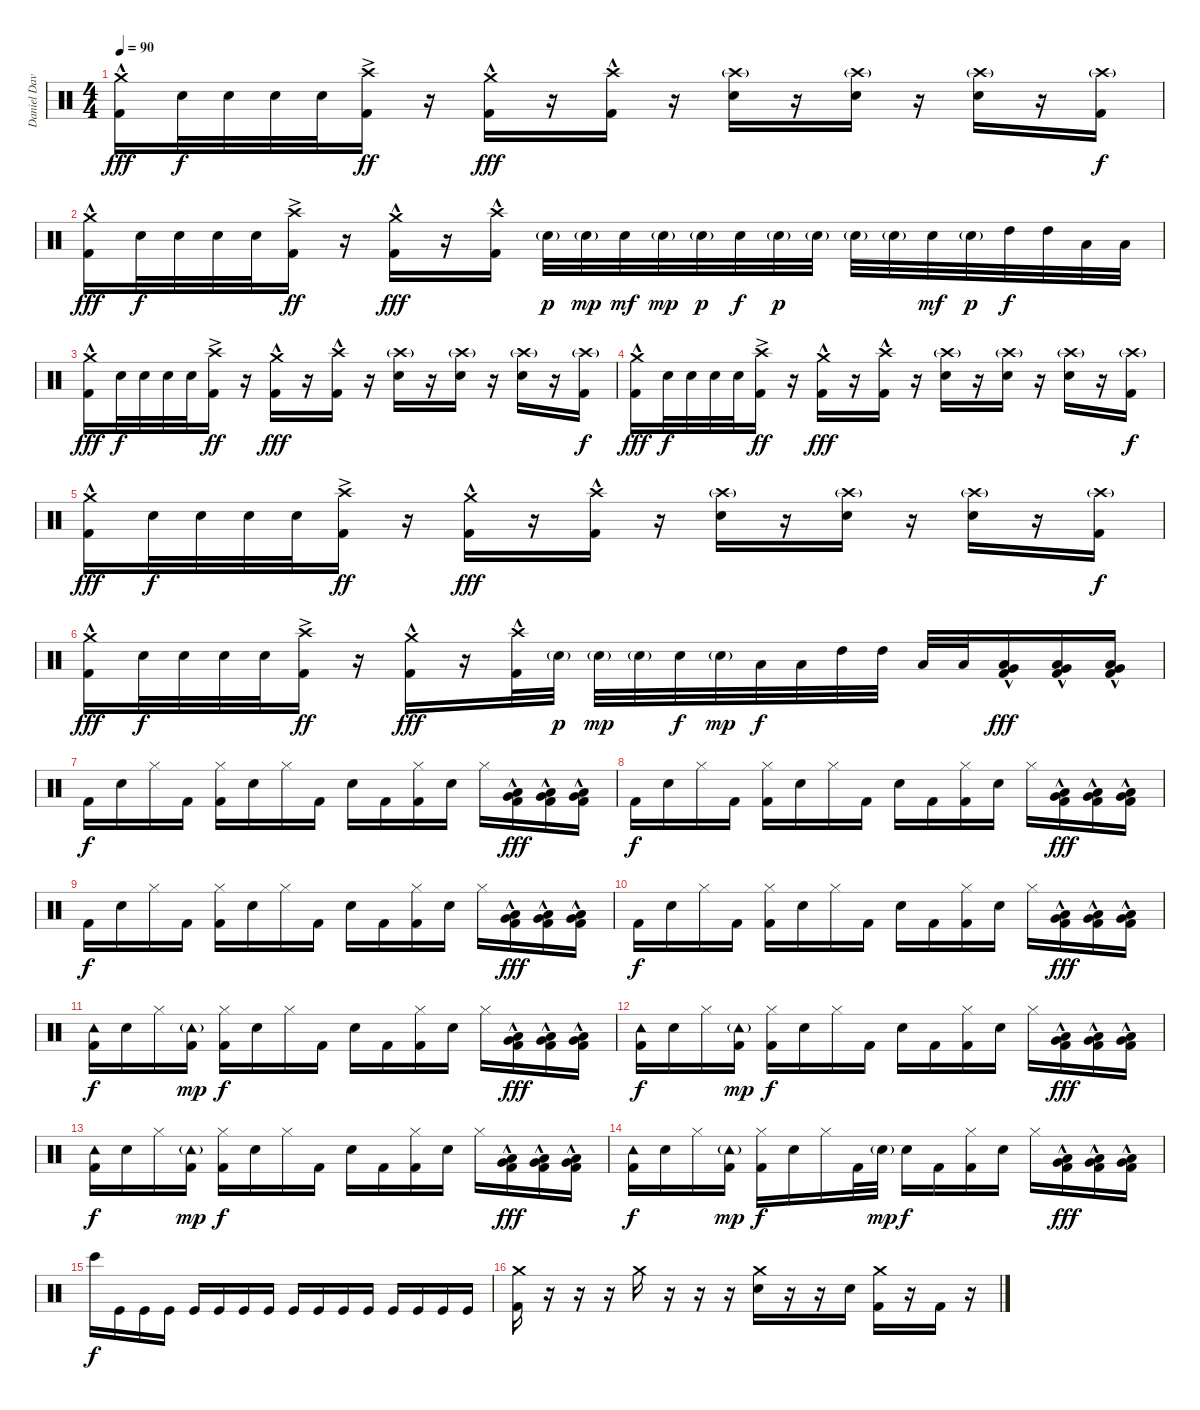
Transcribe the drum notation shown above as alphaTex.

\track ("Daniel Davison" "Daniel Dav") {instrument percussion}
\staff {score}
\articulation defaults
\ts (4 4)
\tempo 90
\clef neutral
\ks c
("Crash medium (hit)" "Kick (hit) 2"{hac}).16{dy fff} "Electric Snare (hit)".32{dy f} "Electric Snare (hit)".32 "Electric Snare (hit)".32 "Electric Snare (hit)".32 ("Crash high (hit)" "Kick (hit) 2"{ac}).16{dy ff} r.16 ("Crash medium (hit)" "Kick (hit) 2"{hac}).16{dy fff} r.16 ("Crash high (hit)" "Kick (hit) 2"{hac}).16 r.16 ("Crash high (hit)"{g} "Electric Snare (hit)").16 r.16 ("Crash high (hit)"{g} "Electric Snare (hit)").16 r.16 ("Crash high (hit)"{g} "Electric Snare (hit)").16 r.16 ("Crash high (hit)"{g} "Kick (hit) 2").16{dy f} |
("Crash medium (hit)" "Kick (hit) 2"{hac}).16{dy fff} "Electric Snare (hit)".32{dy f} "Electric Snare (hit)".32 "Electric Snare (hit)".32 "Electric Snare (hit)".32 ("Crash high (hit)" "Kick (hit) 2"{ac}).16{dy ff} r.16 ("Crash medium (hit)" "Kick (hit) 2"{hac}).16{dy fff} r.16 ("Crash high (hit)" "Kick (hit) 2"{hac}).16 "Electric Snare (hit)"{g}.32{dy p} "Electric Snare (hit)"{g}.32{dy mp} "Electric Snare (hit)".32{dy mf} "Electric Snare (hit)"{g}.32{dy mp} "Electric Snare (hit)"{g}.32{dy p} "Electric Snare (hit)".32{dy f} "Electric Snare (hit)"{g}.32{dy p} "Electric Snare (hit)"{g}.32 "Electric Snare (hit)"{g}.32 "Electric Snare (hit)"{g}.32 "Electric Snare (hit)".32{dy mf} "Electric Snare (hit)"{g}.32{dy p} "High Tom (hit)".32{dy f} "High Tom (hit)".32 "Low Tom (hit)".32 "Low Tom (hit)".32 |
("Crash medium (hit)" "Kick (hit) 2"{hac}).16{dy fff} "Electric Snare (hit)".32{dy f} "Electric Snare (hit)".32 "Electric Snare (hit)".32 "Electric Snare (hit)".32 ("Crash high (hit)" "Kick (hit) 2"{ac}).16{dy ff} r.16 ("Crash medium (hit)" "Kick (hit) 2"{hac}).16{dy fff} r.16 ("Crash high (hit)" "Kick (hit) 2"{hac}).16 r.16 ("Crash high (hit)"{g} "Electric Snare (hit)").16 r.16 ("Crash high (hit)"{g} "Electric Snare (hit)").16 r.16 ("Crash high (hit)"{g} "Electric Snare (hit)").16 r.16 ("Crash high (hit)"{g} "Kick (hit) 2").16{dy f} |
("Crash medium (hit)" "Kick (hit) 2"{hac}).16{dy fff} "Electric Snare (hit)".32{dy f} "Electric Snare (hit)".32 "Electric Snare (hit)".32 "Electric Snare (hit)".32 ("Crash high (hit)" "Kick (hit) 2"{ac}).16{dy ff} r.16 ("Crash medium (hit)" "Kick (hit) 2"{hac}).16{dy fff} r.16 ("Crash high (hit)" "Kick (hit) 2"{hac}).16 r.16 ("Crash high (hit)"{g} "Electric Snare (hit)").16 r.16 ("Crash high (hit)"{g} "Electric Snare (hit)").16 r.16 ("Crash high (hit)"{g} "Electric Snare (hit)").16 r.16 ("Crash high (hit)"{g} "Kick (hit) 2").16{dy f} |
("Crash medium (hit)" "Kick (hit) 2"{hac}).16{dy fff} "Electric Snare (hit)".32{dy f} "Electric Snare (hit)".32 "Electric Snare (hit)".32 "Electric Snare (hit)".32 ("Crash high (hit)" "Kick (hit) 2"{ac}).16{dy ff} r.16 ("Crash medium (hit)" "Kick (hit) 2"{hac}).16{dy fff} r.16 ("Crash high (hit)" "Kick (hit) 2"{hac}).16 r.16 ("Crash high (hit)"{g} "Electric Snare (hit)").16 r.16 ("Crash high (hit)"{g} "Electric Snare (hit)").16 r.16 ("Crash high (hit)"{g} "Electric Snare (hit)").16 r.16 ("Crash high (hit)"{g} "Kick (hit) 2").16{dy f} |
("Crash medium (hit)" "Kick (hit) 2"{hac}).16{dy fff} "Electric Snare (hit)".32{dy f} "Electric Snare (hit)".32 "Electric Snare (hit)".32 "Electric Snare (hit)".32 ("Crash high (hit)" "Kick (hit) 2"{ac}).16{dy ff} r.16 ("Crash medium (hit)" "Kick (hit) 2"{hac}).16{dy fff} r.16 ("Crash high (hit)" "Kick (hit) 2"{hac}).32 "Electric Snare (hit)"{g}.32{dy p} "Electric Snare (hit)"{g}.32{dy mp} "Electric Snare (hit)"{g}.32 "Electric Snare (hit)".32{dy f} "Electric Snare (hit)"{g}.32{dy mp} "Low Tom (hit)".32{dy f} "Low Tom (hit)".32 "High Tom (hit)".32 "High Tom (hit)".32 "Low Tom (hit)".32 "Low Tom (hit)".32 ("Low Tom (hit)"{hac} "Very Low Tom (hit)"{hac} "Kick (hit) 2"{hac}).16{dy fff} ("Low Tom (hit)"{hac} "Very Low Tom (hit)"{hac} "Kick (hit) 2"{hac}).16 ("Low Tom (hit)"{hac} "Very Low Tom (hit)"{hac} "Kick (hit) 2"{hac}).16 |
"Kick (hit) 2".16{dy f} "Electric Snare (hit)".16 "Hi-Hat (closed)".16 "Kick (hit) 2".16 ("Hi-Hat (closed)" "Kick (hit) 2").16 "Electric Snare (hit)".16 "Hi-Hat (closed)".16 "Kick (hit) 2".16 "Snare (hit) 2".16 "Kick (hit) 2".16 ("Hi-Hat (closed)" "Kick (hit) 2").16 "Electric Snare (hit)".16 "Hi-Hat (closed)".16 ("Low Tom (hit)"{hac} "Very Low Tom (hit)"{hac} "Kick (hit) 2"{hac}).16{dy fff} ("Low Tom (hit)"{hac} "Very Low Tom (hit)"{hac} "Kick (hit) 2"{hac}).16 ("Low Tom (hit)"{hac} "Very Low Tom (hit)"{hac} "Kick (hit) 2"{hac}).16 |
"Kick (hit) 2".16{dy f} "Electric Snare (hit)".16 "Hi-Hat (closed)".16 "Kick (hit) 2".16 ("Hi-Hat (closed)" "Kick (hit) 2").16 "Electric Snare (hit)".16 "Hi-Hat (closed)".16 "Kick (hit) 2".16 "Snare (hit) 2".16 "Kick (hit) 2".16 ("Hi-Hat (closed)" "Kick (hit) 2").16 "Electric Snare (hit)".16 "Hi-Hat (closed)".16 ("Low Tom (hit)"{hac} "Very Low Tom (hit)"{hac} "Kick (hit) 2"{hac}).16{dy fff} ("Low Tom (hit)"{hac} "Very Low Tom (hit)"{hac} "Kick (hit) 2"{hac}).16 ("Low Tom (hit)"{hac} "Very Low Tom (hit)"{hac} "Kick (hit) 2"{hac}).16 |
"Kick (hit) 2".16{dy f} "Electric Snare (hit)".16 "Hi-Hat (closed)".16 "Kick (hit) 2".16 ("Hi-Hat (closed)" "Kick (hit) 2").16 "Electric Snare (hit)".16 "Hi-Hat (closed)".16 "Kick (hit) 2".16 "Snare (hit) 2".16 "Kick (hit) 2".16 ("Hi-Hat (closed)" "Kick (hit) 2").16 "Electric Snare (hit)".16 "Hi-Hat (closed)".16 ("Low Tom (hit)"{hac} "Very Low Tom (hit)"{hac} "Kick (hit) 2"{hac}).16{dy fff} ("Low Tom (hit)"{hac} "Very Low Tom (hit)"{hac} "Kick (hit) 2"{hac}).16 ("Low Tom (hit)"{hac} "Very Low Tom (hit)"{hac} "Kick (hit) 2"{hac}).16 |
"Kick (hit) 2".16{dy f} "Electric Snare (hit)".16 "Hi-Hat (closed)".16 "Kick (hit) 2".16 ("Hi-Hat (closed)" "Kick (hit) 2").16 "Electric Snare (hit)".16 "Hi-Hat (closed)".16 "Kick (hit) 2".16 "Snare (hit) 2".16 "Kick (hit) 2".16 ("Hi-Hat (closed)" "Kick (hit) 2").16 "Electric Snare (hit)".16 "Hi-Hat (closed)".16 ("Low Tom (hit)"{hac} "Very Low Tom (hit)"{hac} "Kick (hit) 2"{hac}).16{dy fff} ("Low Tom (hit)"{hac} "Very Low Tom (hit)"{hac} "Kick (hit) 2"{hac}).16 ("Low Tom (hit)"{hac} "Very Low Tom (hit)"{hac} "Kick (hit) 2"{hac}).16 |
("Tambourine (hit)" "Kick (hit) 2").16{dy f} "Electric Snare (hit)".16 "Hi-Hat (closed)".16 ("Tambourine (hit)"{g} "Kick (hit) 2").16{dy mp} ("Hi-Hat (closed)" "Kick (hit) 2").16{dy f} "Electric Snare (hit)".16 "Hi-Hat (closed)".16 "Kick (hit) 2".16 "Snare (hit) 2".16 "Kick (hit) 2".16 ("Hi-Hat (closed)" "Kick (hit) 2").16 "Electric Snare (hit)".16 "Hi-Hat (closed)".16 ("Low Tom (hit)"{hac} "Very Low Tom (hit)"{hac} "Kick (hit) 2"{hac}).16{dy fff} ("Low Tom (hit)"{hac} "Very Low Tom (hit)"{hac} "Kick (hit) 2"{hac}).16 ("Low Tom (hit)"{hac} "Very Low Tom (hit)"{hac} "Kick (hit) 2"{hac}).16 |
("Tambourine (hit)" "Kick (hit) 2").16{dy f} "Electric Snare (hit)".16 "Hi-Hat (closed)".16 ("Tambourine (hit)"{g} "Kick (hit) 2").16{dy mp} ("Hi-Hat (closed)" "Kick (hit) 2").16{dy f} "Electric Snare (hit)".16 "Hi-Hat (closed)".16 "Kick (hit) 2".16 "Snare (hit) 2".16 "Kick (hit) 2".16 ("Hi-Hat (closed)" "Kick (hit) 2").16 "Electric Snare (hit)".16 "Hi-Hat (closed)".16 ("Low Tom (hit)"{hac} "Very Low Tom (hit)"{hac} "Kick (hit) 2"{hac}).16{dy fff} ("Low Tom (hit)"{hac} "Very Low Tom (hit)"{hac} "Kick (hit) 2"{hac}).16 ("Low Tom (hit)"{hac} "Very Low Tom (hit)"{hac} "Kick (hit) 2"{hac}).16 |
("Tambourine (hit)" "Kick (hit) 2").16{dy f} "Electric Snare (hit)".16 "Hi-Hat (closed)".16 ("Tambourine (hit)"{g} "Kick (hit) 2").16{dy mp} ("Hi-Hat (closed)" "Kick (hit) 2").16{dy f} "Electric Snare (hit)".16 "Hi-Hat (closed)".16 "Kick (hit) 2".16 "Snare (hit) 2".16 "Kick (hit) 2".16 ("Hi-Hat (closed)" "Kick (hit) 2").16 "Electric Snare (hit)".16 "Hi-Hat (closed)".16 ("Low Tom (hit)"{hac} "Very Low Tom (hit)"{hac} "Kick (hit) 2"{hac}).16{dy fff} ("Low Tom (hit)"{hac} "Very Low Tom (hit)"{hac} "Kick (hit) 2"{hac}).16 ("Low Tom (hit)"{hac} "Very Low Tom (hit)"{hac} "Kick (hit) 2"{hac}).16 |
("Tambourine (hit)" "Kick (hit) 2").16{dy f} "Electric Snare (hit)".16 "Hi-Hat (closed)".16 ("Tambourine (hit)"{g} "Kick (hit) 2").16{dy mp} ("Hi-Hat (closed)" "Kick (hit) 2").16{dy f} "Electric Snare (hit)".16 "Hi-Hat (closed)".16 "Kick (hit) 2".32 "Snare (hit) 2"{g}.32{dy mp} "Snare (hit) 2".16{dy f} "Kick (hit) 2".16 ("Hi-Hat (closed)" "Kick (hit) 2").16 "Electric Snare (hit)".16 "Hi-Hat (closed)".16 ("Low Tom (hit)"{hac} "Very Low Tom (hit)"{hac} "Kick (hit) 2"{hac}).16{dy fff} ("Low Tom (hit)"{hac} "Very Low Tom (hit)"{hac} "Kick (hit) 2"{hac}).16 ("Low Tom (hit)"{hac} "Very Low Tom (hit)"{hac} "Kick (hit) 2"{hac}).16 |
"Bongo High (hit)".16{dy f} "Kick (hit)".16 "Kick (hit)".16 "Kick (hit)".16 "Kick (hit)".16 "Kick (hit)".16 "Kick (hit)".16 "Kick (hit)".16 "Kick (hit)".16 "Kick (hit)".16 "Kick (hit)".16 "Kick (hit)".16 "Kick (hit)".16 "Kick (hit)".16 "Kick (hit)".16 "Kick (hit)".16 |
("Crash medium (hit)" "Kick (hit) 2").16 r.16 r.16 r.16 "Crash medium (hit)".16 r.16 r.16 r.16 ("Crash medium (hit)" "Electric Snare (hit)").16 r.16 r.16 "Electric Snare (hit)".16 ("Crash medium (hit)" "Kick (hit) 2").16 r.16 "Kick (hit) 2".16 r.16
